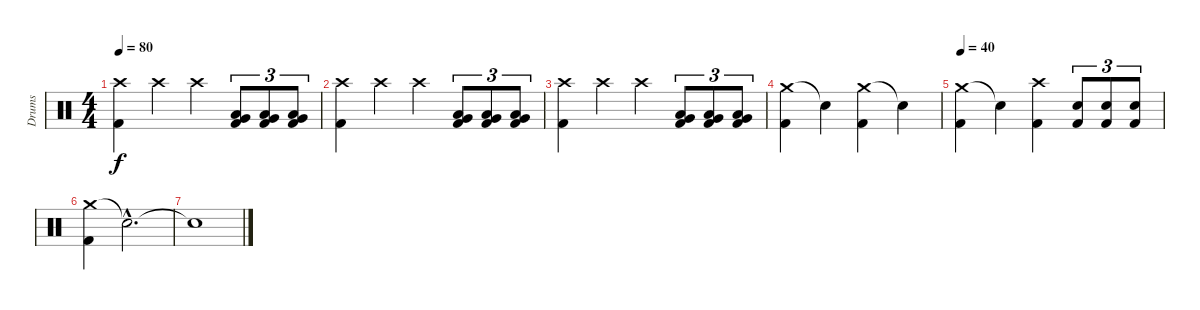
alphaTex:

\track ("Drums" "Drums") {instrument percussion}
\staff {score}
\articulation defaults
\ts (4 4)
\tempo 80
\clef neutral
\ks c
("Crash high (hit)" "Kick (hit) 2").4{dy f} "Crash high (hit)".4 "Crash high (hit)".4 ("Very Low Tom (hit)" "Low Floor Tom (hit)" "Kick (hit) 2").8{tu (3 2)} ("Very Low Tom (hit)" "Low Floor Tom (hit)" "Kick (hit) 2").8{tu (3 2)} ("Very Low Tom (hit)" "Low Floor Tom (hit)" "Kick (hit) 2").8{tu (3 2)} |
("Crash high (hit)" "Kick (hit) 2").4 "Crash high (hit)".4 "Crash high (hit)".4 ("Very Low Tom (hit)" "Low Floor Tom (hit)" "Kick (hit) 2").8{tu (3 2)} ("Very Low Tom (hit)" "Low Floor Tom (hit)" "Kick (hit) 2").8{tu (3 2)} ("Very Low Tom (hit)" "Low Floor Tom (hit)" "Kick (hit) 2").8{tu (3 2)} |
("Crash high (hit)" "Kick (hit) 2").4 "Crash high (hit)".4 "Crash high (hit)".4 ("Very Low Tom (hit)" "Low Floor Tom (hit)" "Kick (hit) 2").8{tu (3 2)} ("Very Low Tom (hit)" "Low Floor Tom (hit)" "Kick (hit) 2").8{tu (3 2)} ("Very Low Tom (hit)" "Low Floor Tom (hit)" "Kick (hit) 2").8{tu (3 2)} |
("Crash medium (hit)" "Kick (hit) 2").4 "Snare (hit)"{t}.4 ("Crash medium (hit)" "Kick (hit) 2").4 "Snare (hit)"{t}.4 |
\tempo 40
("Crash medium (hit)" "Kick (hit) 2").4 "Snare (hit)"{t}.4 ("Crash high (hit)" "Kick (hit) 2").4 ("Snare (hit) 2" "Kick (hit) 2").8{tu (3 2)} ("Snare (hit) 2" "Kick (hit) 2").8{tu (3 2)} ("Snare (hit) 2" "Kick (hit) 2").8{tu (3 2)} |
("Crash medium (hit)" "Kick (hit) 2").4 "Snare (hit)"{hac t}.2{d} |
"Snare (hit)"{t}.1{volume 3}
